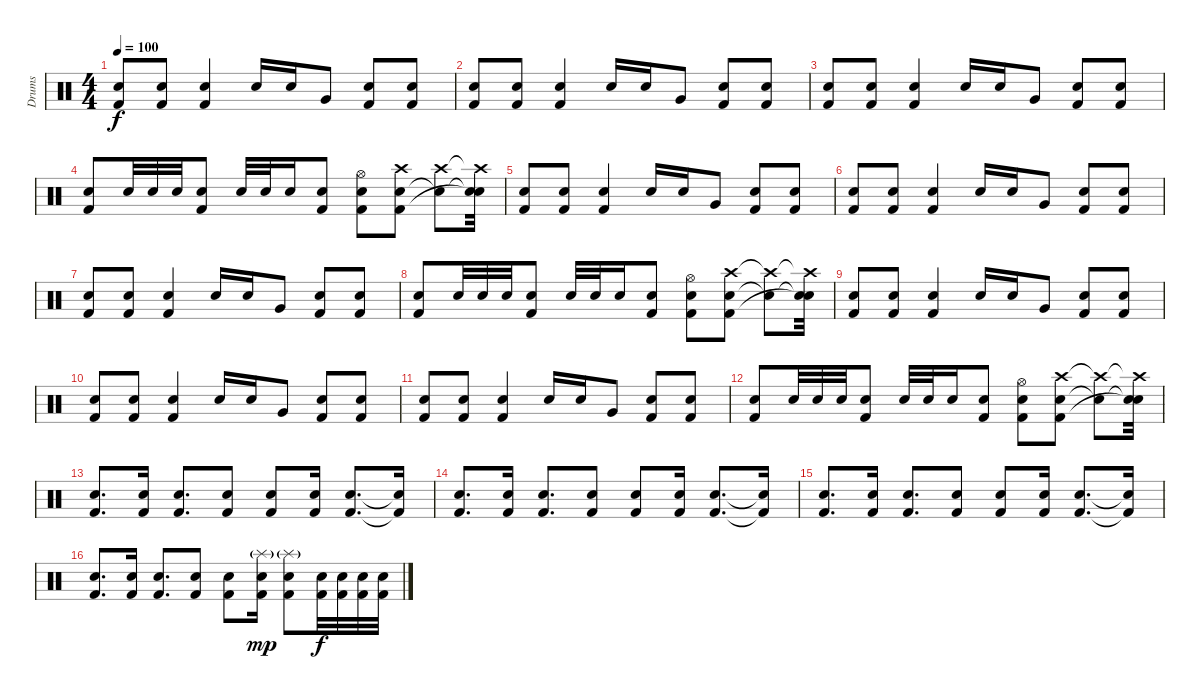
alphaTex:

\track ("Drums" "Drums") {instrument percussion}
\staff {score}
\articulation defaults
\ts (4 4)
\tempo 100
\clef neutral
\ks c
("Snare (hit) 2" "Kick (hit) 2").8{dy f volume 5} ("Snare (hit) 2" "Kick (hit) 2").8 ("Snare (hit) 2" "Kick (hit) 2").4 "Snare (hit) 2".16 "Snare (hit) 2".16 "Very Low Tom (hit)".8 ("Snare (hit) 2" "Kick (hit) 2").8 ("Snare (hit) 2" "Kick (hit) 2").8 |
("Snare (hit) 2" "Kick (hit) 2").8 ("Snare (hit) 2" "Kick (hit) 2").8 ("Snare (hit) 2" "Kick (hit) 2").4 "Snare (hit) 2".16 "Snare (hit) 2".16 "Very Low Tom (hit)".8 ("Snare (hit) 2" "Kick (hit) 2").8 ("Snare (hit) 2" "Kick (hit) 2").8 |
("Snare (hit) 2" "Kick (hit) 2").8 ("Snare (hit) 2" "Kick (hit) 2").8 ("Snare (hit) 2" "Kick (hit) 2").4 "Snare (hit) 2".16 "Snare (hit) 2".16 "Very Low Tom (hit)".8 ("Snare (hit) 2" "Kick (hit) 2").8 ("Snare (hit) 2" "Kick (hit) 2").8 |
("Snare (hit) 2" "Kick (hit) 2").8 "Snare (hit) 2".32 "Snare (hit) 2".32 "Snare (hit) 2".32 ("Snare (hit) 2" "Kick (hit) 2").8 "Snare (hit) 2".32 "Snare (hit) 2".32 "Snare (hit) 2".16 ("Snare (hit) 2" "Kick (hit) 2").8 ("Hi-Hat (open)" "Snare (hit) 2" "Kick (hit) 2").8 ("Crash high (hit)" "Snare (hit) 2" "Kick (hit) 2").8 ("Crash high (hit)" "Snare (hit) 2"{t}).8 ("Crash high (hit)"{t} "Snare (hit)"{t} "Snare (hit) 2"{t}).32 |
("Snare (hit) 2" "Kick (hit) 2").8 ("Snare (hit) 2" "Kick (hit) 2").8 ("Snare (hit) 2" "Kick (hit) 2").4 "Snare (hit) 2".16 "Snare (hit) 2".16 "Very Low Tom (hit)".8 ("Snare (hit) 2" "Kick (hit) 2").8 ("Snare (hit) 2" "Kick (hit) 2").8 |
("Snare (hit) 2" "Kick (hit) 2").8 ("Snare (hit) 2" "Kick (hit) 2").8 ("Snare (hit) 2" "Kick (hit) 2").4 "Snare (hit) 2".16 "Snare (hit) 2".16 "Very Low Tom (hit)".8 ("Snare (hit) 2" "Kick (hit) 2").8 ("Snare (hit) 2" "Kick (hit) 2").8 |
("Snare (hit) 2" "Kick (hit) 2").8 ("Snare (hit) 2" "Kick (hit) 2").8 ("Snare (hit) 2" "Kick (hit) 2").4 "Snare (hit) 2".16 "Snare (hit) 2".16 "Very Low Tom (hit)".8 ("Snare (hit) 2" "Kick (hit) 2").8 ("Snare (hit) 2" "Kick (hit) 2").8 |
("Snare (hit) 2" "Kick (hit) 2").8 "Snare (hit) 2".32 "Snare (hit) 2".32 "Snare (hit) 2".32 ("Snare (hit) 2" "Kick (hit) 2").8 "Snare (hit) 2".32 "Snare (hit) 2".32 "Snare (hit) 2".16 ("Snare (hit) 2" "Kick (hit) 2").8 ("Hi-Hat (open)" "Snare (hit) 2" "Kick (hit) 2").8 ("Crash high (hit)" "Snare (hit) 2" "Kick (hit) 2").8 ("Crash high (hit)"{t} "Snare (hit) 2"{t}).8 ("Crash high (hit)"{t} "Snare (hit)"{t} "Snare (hit) 2"{t}).32 |
("Snare (hit) 2" "Kick (hit) 2").8 ("Snare (hit) 2" "Kick (hit) 2").8 ("Snare (hit) 2" "Kick (hit) 2").4 "Snare (hit) 2".16 "Snare (hit) 2".16 "Very Low Tom (hit)".8 ("Snare (hit) 2" "Kick (hit) 2").8 ("Snare (hit) 2" "Kick (hit) 2").8 |
("Snare (hit) 2" "Kick (hit) 2").8 ("Snare (hit) 2" "Kick (hit) 2").8 ("Snare (hit) 2" "Kick (hit) 2").4 "Snare (hit) 2".16 "Snare (hit) 2".16 "Very Low Tom (hit)".8 ("Snare (hit) 2" "Kick (hit) 2").8 ("Snare (hit) 2" "Kick (hit) 2").8 |
("Snare (hit) 2" "Kick (hit) 2").8 ("Snare (hit) 2" "Kick (hit) 2").8 ("Snare (hit) 2" "Kick (hit) 2").4 "Snare (hit) 2".16 "Snare (hit) 2".16 "Very Low Tom (hit)".8 ("Snare (hit) 2" "Kick (hit) 2").8 ("Snare (hit) 2" "Kick (hit) 2").8 |
("Snare (hit) 2" "Kick (hit) 2").8 "Snare (hit) 2".32 "Snare (hit) 2".32 "Snare (hit) 2".32 ("Snare (hit) 2" "Kick (hit) 2").8 "Snare (hit) 2".32 "Snare (hit) 2".32 "Snare (hit) 2".16 ("Snare (hit) 2" "Kick (hit) 2").8 ("Hi-Hat (open)" "Snare (hit) 2" "Kick (hit) 2").8 ("Crash high (hit)" "Snare (hit) 2" "Kick (hit) 2").8 ("Crash high (hit)"{t} "Snare (hit) 2"{t}).8 ("Crash high (hit)"{t} "Snare (hit)"{t} "Snare (hit) 2"{t}).32 |
("Snare (hit) 2" "Kick (hit) 2").8{d} ("Snare (hit) 2" "Kick (hit) 2").16 ("Snare (hit) 2" "Kick (hit) 2").8{d} ("Snare (hit) 2" "Kick (hit) 2").8 ("Snare (hit) 2" "Kick (hit) 2").8 ("Snare (hit) 2" "Kick (hit) 2").16 ("Snare (hit) 2" "Kick (hit) 2").8{d} ("Snare (hit) 2"{t} "Kick (hit) 2"{t}).16 |
("Snare (hit) 2" "Kick (hit) 2").8{d} ("Snare (hit) 2" "Kick (hit) 2").16 ("Snare (hit) 2" "Kick (hit) 2").8{d} ("Snare (hit) 2" "Kick (hit) 2").8 ("Snare (hit) 2" "Kick (hit) 2").8 ("Snare (hit) 2" "Kick (hit) 2").16 ("Snare (hit) 2" "Kick (hit) 2").8{d} ("Snare (hit) 2"{t} "Kick (hit) 2"{t}).16 |
("Snare (hit) 2" "Kick (hit) 2").8{d} ("Snare (hit) 2" "Kick (hit) 2").16 ("Snare (hit) 2" "Kick (hit) 2").8{d} ("Snare (hit) 2" "Kick (hit) 2").8 ("Snare (hit) 2" "Kick (hit) 2").8 ("Snare (hit) 2" "Kick (hit) 2").16 ("Snare (hit) 2" "Kick (hit) 2").8{d} ("Snare (hit) 2"{t} "Kick (hit) 2"{t}).16 |
("Snare (hit) 2" "Kick (hit) 2").8{d} ("Snare (hit) 2" "Kick (hit) 2").16 ("Snare (hit) 2" "Kick (hit) 2").8{d} ("Snare (hit) 2" "Kick (hit) 2").8 ("Snare (hit) 2" "Kick (hit) 2").8 ("Splash (hit)"{g} "Snare (hit) 2" "Kick (hit) 2").16{dy mp} ("Splash (hit)"{g} "Snare (hit) 2" "Kick (hit) 2").8 ("Snare (hit) 2" "Kick (hit) 2").32{dy f} ("Snare (hit) 2" "Kick (hit) 2").32 ("Snare (hit) 2" "Kick (hit) 2").32 ("Snare (hit) 2" "Kick (hit) 2").32
